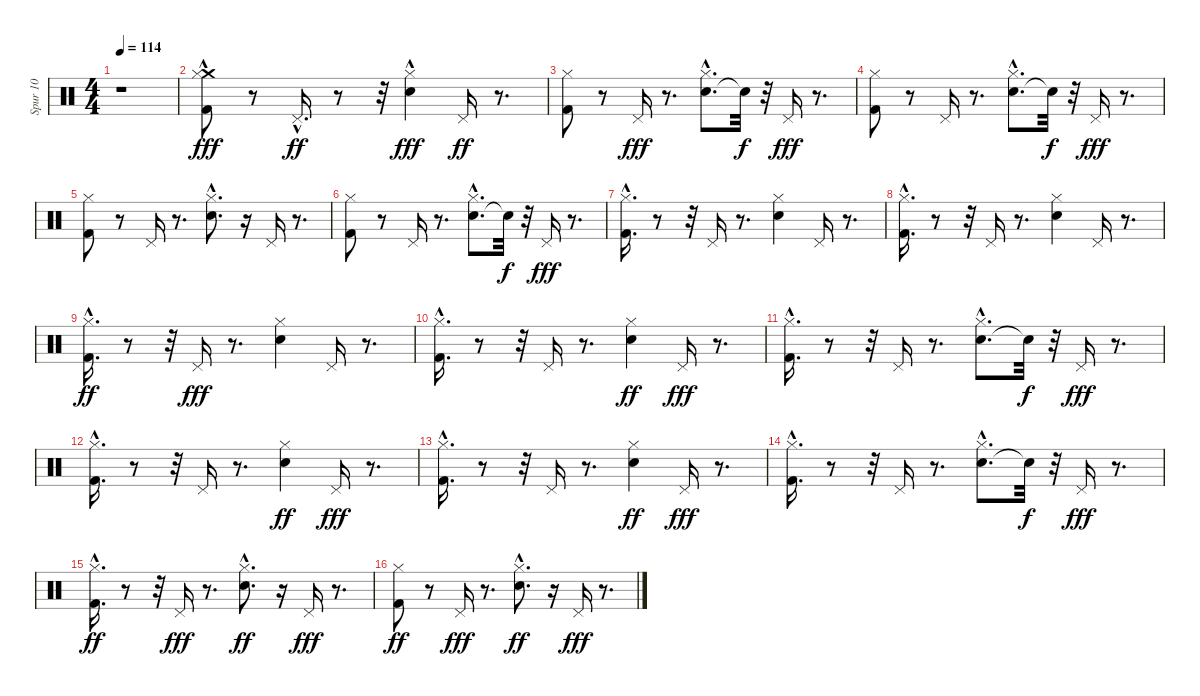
\track ("Spur 10" "Spur 10") {instrument percussion}
\staff {score}
\articulation defaults
\ts (4 4)
\tempo 114
\clef neutral
\ks c
r.1{dy fff} |
("Kick (hit) 2" "Crash medium (hit)"{hac} "Hi-Hat (closed)"{hac}).8 r.8 "Pedal Hi-Hat (hit)"{hac}.16{d dy ff} r.8 r.32 ("Snare (hit) 2" "Hi-Hat (closed)"{hac}).4{dy fff} "Pedal Hi-Hat (hit)".16{dy ff} r.8{d} |
("Kick (hit) 2" "Hi-Hat (closed)").8 r.8 "Pedal Hi-Hat (hit)".16{dy fff} r.8{d} ("Snare (hit) 2"{hac} "Hi-Hat (closed)").8{d} "Snare (hit)"{t}.32{dy f} r.32 "Pedal Hi-Hat (hit)".16{dy fff} r.8{d} |
("Kick (hit) 2" "Hi-Hat (closed)").8 r.8 "Pedal Hi-Hat (hit)".16 r.8{d} ("Snare (hit) 2"{hac} "Hi-Hat (closed)").8{d} "Snare (hit)"{t}.32{dy f} r.32 "Pedal Hi-Hat (hit)".16{dy fff} r.8{d} |
("Kick (hit) 2" "Hi-Hat (closed)").8 r.8 "Pedal Hi-Hat (hit)".16 r.8{d} ("Snare (hit) 2"{hac} "Hi-Hat (closed)").8{d} r.16 "Pedal Hi-Hat (hit)".16 r.8{d} |
("Kick (hit) 2" "Hi-Hat (closed)").8 r.8 "Pedal Hi-Hat (hit)".16 r.8{d} ("Snare (hit) 2"{hac} "Hi-Hat (closed)").8{d} "Snare (hit)"{t}.32{dy f} r.32 "Pedal Hi-Hat (hit)".16{dy fff} r.8{d} |
("Kick (hit) 2"{hac} "Hi-Hat (closed)").16{d} r.8 r.32 "Pedal Hi-Hat (hit)".16 r.8{d} ("Snare (hit) 2" "Hi-Hat (closed)").4 "Pedal Hi-Hat (hit)".16 r.8{d} |
("Kick (hit) 2"{hac} "Hi-Hat (closed)").16{d} r.8 r.32 "Pedal Hi-Hat (hit)".16 r.8{d} ("Snare (hit) 2" "Hi-Hat (closed)").4 "Pedal Hi-Hat (hit)".16 r.8{d} |
("Kick (hit) 2"{hac} "Hi-Hat (closed)").16{d dy ff} r.8 r.32 "Pedal Hi-Hat (hit)".16{dy fff} r.8{d} ("Snare (hit) 2" "Hi-Hat (closed)").4 "Pedal Hi-Hat (hit)".16 r.8{d} |
("Kick (hit) 2"{hac} "Hi-Hat (closed)").16{d} r.8 r.32 "Pedal Hi-Hat (hit)".16 r.8{d} ("Snare (hit) 2" "Hi-Hat (closed)").4{dy ff} "Pedal Hi-Hat (hit)".16{dy fff} r.8{d} |
("Kick (hit) 2"{hac} "Hi-Hat (closed)").16{d} r.8 r.32 "Pedal Hi-Hat (hit)".16 r.8{d} ("Snare (hit) 2"{hac} "Hi-Hat (closed)").8{d} "Snare (hit)"{t}.32{dy f} r.32 "Pedal Hi-Hat (hit)".16{dy fff} r.8{d} |
("Kick (hit) 2"{hac} "Hi-Hat (closed)").16{d} r.8 r.32 "Pedal Hi-Hat (hit)".16 r.8{d} ("Snare (hit) 2" "Hi-Hat (closed)").4{dy ff} "Pedal Hi-Hat (hit)".16{dy fff} r.8{d} |
("Kick (hit) 2"{hac} "Hi-Hat (closed)").16{d} r.8 r.32 "Pedal Hi-Hat (hit)".16 r.8{d} ("Snare (hit) 2" "Hi-Hat (closed)").4{dy ff} "Pedal Hi-Hat (hit)".16{dy fff} r.8{d} |
("Kick (hit) 2"{hac} "Hi-Hat (closed)").16{d} r.8 r.32 "Pedal Hi-Hat (hit)".16 r.8{d} ("Snare (hit) 2"{hac} "Hi-Hat (closed)").8{d} "Snare (hit)"{t}.32{dy f} r.32 "Pedal Hi-Hat (hit)".16{dy fff} r.8{d} |
("Kick (hit) 2"{hac} "Hi-Hat (closed)").16{d dy ff} r.8 r.32 "Pedal Hi-Hat (hit)".16{dy fff} r.8{d} ("Snare (hit) 2"{hac} "Hi-Hat (closed)").8{d dy ff} r.16 "Pedal Hi-Hat (hit)".16{dy fff} r.8{d} |
("Kick (hit) 2" "Hi-Hat (closed)").8{dy ff} r.8 "Pedal Hi-Hat (hit)".16{dy fff} r.8{d} ("Snare (hit) 2"{hac} "Hi-Hat (closed)").8{d dy ff} r.16 "Pedal Hi-Hat (hit)".16{dy fff} r.8{d}
